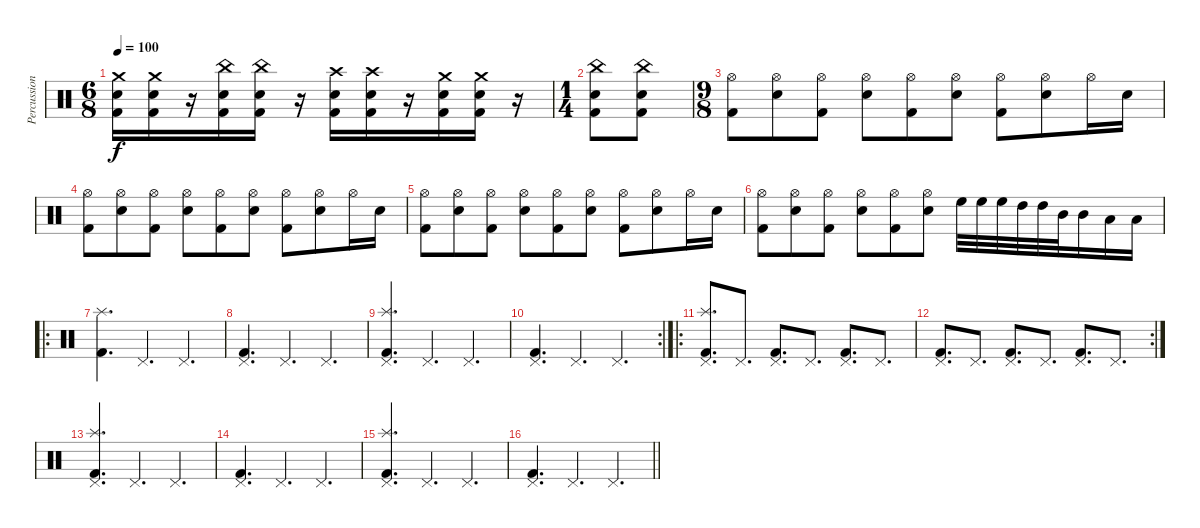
\track ("Percussion" "Percussion") {instrument percussion}
\staff {score}
\articulation defaults
\ts (6 8)
\tempo 100
\clef neutral
\ks c
("Crash medium (hit)" "Electric Snare (hit)" "Kick (hit) 2").16{dy f} ("Crash medium (hit)" "Electric Snare (hit)" "Kick (hit) 2").16 r.16 ("China (hit)" "Electric Snare (hit)" "Kick (hit) 2").16 ("China (hit)" "Electric Snare (hit)" "Kick (hit) 2").16 r.16 ("Crash high (hit)" "Electric Snare (hit)" "Kick (hit) 2").16 ("Crash high (hit)" "Electric Snare (hit)" "Kick (hit) 2").16 r.16 ("Crash medium (hit)" "Electric Snare (hit)" "Kick (hit) 2").16 ("Crash medium (hit)" "Electric Snare (hit)" "Kick (hit) 2").16 r.16 |
\ts (1 4)
("China (hit)" "Electric Snare (hit)" "Kick (hit) 2").8 ("China (hit)" "Electric Snare (hit)" "Kick (hit) 2").8 |
\ts (9 8)
("Hi-Hat (open)" "Kick (hit) 2").8 ("Hi-Hat (open)" "Electric Snare (hit)").8 ("Hi-Hat (open)" "Kick (hit) 2").8 ("Hi-Hat (open)" "Electric Snare (hit)").8 ("Hi-Hat (open)" "Kick (hit) 2").8 ("Hi-Hat (open)" "Electric Snare (hit)").8 ("Hi-Hat (open)" "Kick (hit) 2").8 ("Hi-Hat (open)" "Electric Snare (hit)").8 "Hi-Hat (open)".16 "Electric Snare (hit)".16 |
("Hi-Hat (open)" "Kick (hit) 2").8 ("Hi-Hat (open)" "Electric Snare (hit)").8 ("Hi-Hat (open)" "Kick (hit) 2").8 ("Hi-Hat (open)" "Electric Snare (hit)").8 ("Hi-Hat (open)" "Kick (hit) 2").8 ("Hi-Hat (open)" "Electric Snare (hit)").8 ("Hi-Hat (open)" "Kick (hit) 2").8 ("Hi-Hat (open)" "Electric Snare (hit)").8 "Hi-Hat (open)".16 "Electric Snare (hit)".16 |
("Hi-Hat (open)" "Kick (hit) 2").8 ("Hi-Hat (open)" "Electric Snare (hit)").8 ("Hi-Hat (open)" "Kick (hit) 2").8 ("Hi-Hat (open)" "Electric Snare (hit)").8 ("Hi-Hat (open)" "Kick (hit) 2").8 ("Hi-Hat (open)" "Electric Snare (hit)").8 ("Hi-Hat (open)" "Kick (hit) 2").8 ("Hi-Hat (open)" "Electric Snare (hit)").8 "Hi-Hat (open)".16 "Electric Snare (hit)".16 |
("Hi-Hat (open)" "Kick (hit) 2").8 ("Hi-Hat (open)" "Electric Snare (hit)").8 ("Hi-Hat (open)" "Kick (hit) 2").8 ("Hi-Hat (open)" "Electric Snare (hit)").8 ("Hi-Hat (open)" "Kick (hit) 2").8 ("Hi-Hat (open)" "Electric Snare (hit)").8 "High Floor Tom (hit)".32 "High Floor Tom (hit)".32 "High Floor Tom (hit)".32 "High Tom (hit)".32 "High Tom (hit)".32 "Mid Tom (hit)".32 "Mid Tom (hit)".16 "Low Tom (hit)".16 "Low Tom (hit)".16 |
\ro
("Splash (hit)" "Kick (hit) 2").4{d} "Pedal Hi-Hat (hit)".4{d} "Pedal Hi-Hat (hit)".4{d} |
("Pedal Hi-Hat (hit)" "Kick (hit) 2").4{d} "Pedal Hi-Hat (hit)".4{d} "Pedal Hi-Hat (hit)".4{d} |
("Pedal Hi-Hat (hit)" "Splash (hit)" "Kick (hit) 2").4{d} "Pedal Hi-Hat (hit)".4{d} "Pedal Hi-Hat (hit)".4{d} |
\rc 2
("Pedal Hi-Hat (hit)" "Kick (hit) 2").4{d} "Pedal Hi-Hat (hit)".4{d} "Pedal Hi-Hat (hit)".4{d} |
\ro
("Pedal Hi-Hat (hit)" "Splash (hit)" "Kick (hit) 2").8{d} "Pedal Hi-Hat (hit)".8{d} ("Pedal Hi-Hat (hit)" "Kick (hit) 2").8{d} "Pedal Hi-Hat (hit)".8{d} ("Pedal Hi-Hat (hit)" "Kick (hit) 2").8{d} "Pedal Hi-Hat (hit)".8{d} |
\rc 2
("Pedal Hi-Hat (hit)" "Kick (hit) 2").8{d} "Pedal Hi-Hat (hit)".8{d} ("Pedal Hi-Hat (hit)" "Kick (hit) 2").8{d} "Pedal Hi-Hat (hit)".8{d} ("Pedal Hi-Hat (hit)" "Kick (hit) 2").8{d} "Pedal Hi-Hat (hit)".8{d} |
("Pedal Hi-Hat (hit)" "Splash (hit)" "Kick (hit) 2").4{d} "Pedal Hi-Hat (hit)".4{d} "Pedal Hi-Hat (hit)".4{d} |
("Pedal Hi-Hat (hit)" "Kick (hit) 2").4{d} "Pedal Hi-Hat (hit)".4{d} "Pedal Hi-Hat (hit)".4{d} |
("Pedal Hi-Hat (hit)" "Splash (hit)" "Kick (hit) 2").4{d} "Pedal Hi-Hat (hit)".4{d} "Pedal Hi-Hat (hit)".4{d} |
\barLineRight lightlight
("Pedal Hi-Hat (hit)" "Kick (hit) 2").4{d} "Pedal Hi-Hat (hit)".4{d} "Pedal Hi-Hat (hit)".4{d}
